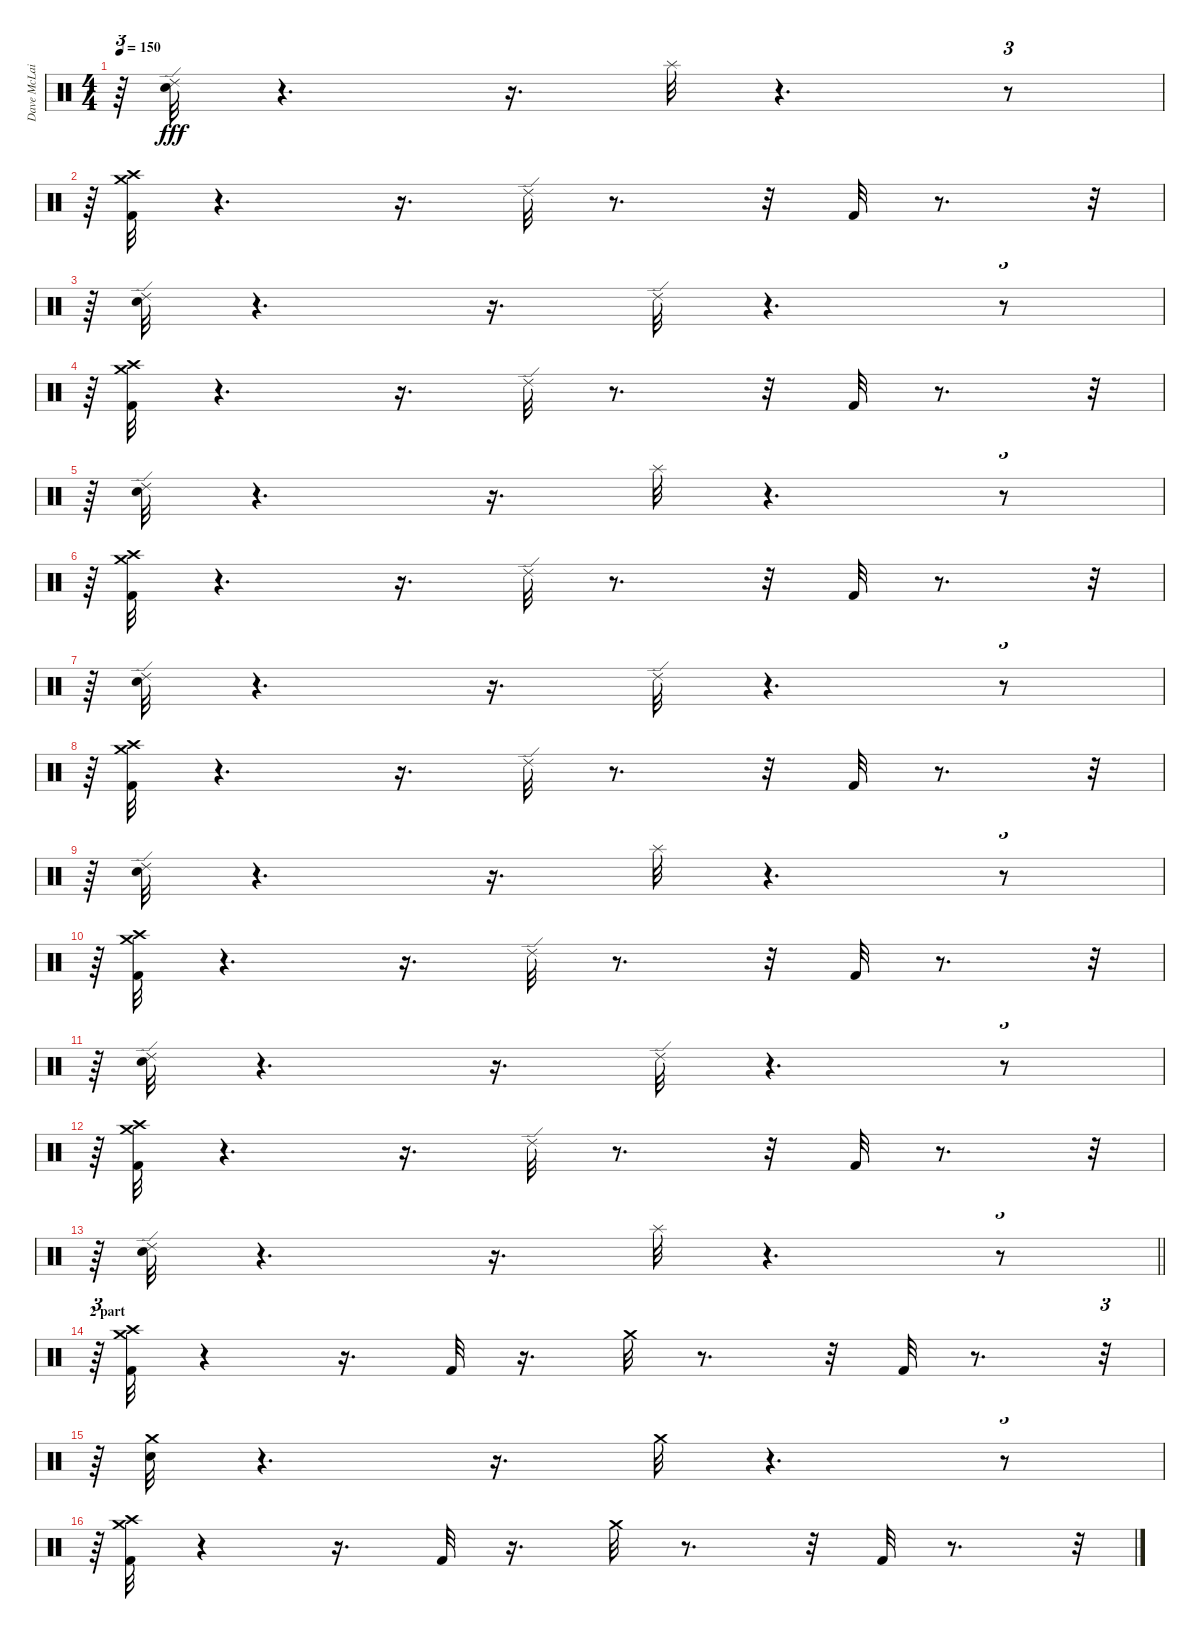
\track ("Dave McLain" "Dave McLai") {instrument percussion}
\staff {score}
\articulation defaults
\ts (4 4)
\tempo 150
\clef neutral
\ks c
r.64{tu (3 2) dy fff} ("Snare (hit) 2" "Ride (edge) 2").32 r.4{d} r.16{d} "Splash (hit)".32 r.4{d} r.8{tu (3 2)} |
r.64{tu (3 2)} ("Crash medium (hit)" "Crash high (hit)" "Kick (hit) 2").32 r.4{d} r.16{d} "Ride (edge) 2".32 r.8{d} r.32 "Kick (hit) 2".32 r.8{d} r.32{tu (3 2)} |
r.64{tu (3 2)} ("Ride (edge) 2" "Snare (hit) 2").32 r.4{d} r.16{d} "Ride (edge) 2".32 r.4{d} r.8{tu (3 2)} |
r.64{tu (3 2)} ("Crash high (hit)" "Crash medium (hit)" "Kick (hit) 2").32 r.4{d} r.16{d} "Ride (edge) 2".32 r.8{d} r.32 "Kick (hit) 2".32 r.8{d} r.32{tu (3 2)} |
r.64{tu (3 2)} ("Snare (hit) 2" "Ride (edge) 2").32 r.4{d} r.16{d} "Splash (hit)".32 r.4{d} r.8{tu (3 2)} |
r.64{tu (3 2)} ("Crash medium (hit)" "Crash high (hit)" "Kick (hit) 2").32 r.4{d} r.16{d} "Ride (edge) 2".32 r.8{d} r.32 "Kick (hit) 2".32 r.8{d} r.32{tu (3 2)} |
r.64{tu (3 2)} ("Ride (edge) 2" "Snare (hit) 2").32 r.4{d} r.16{d} "Ride (edge) 2".32 r.4{d} r.8{tu (3 2)} |
r.64{tu (3 2)} ("Crash high (hit)" "Crash medium (hit)" "Kick (hit) 2").32 r.4{d} r.16{d} "Ride (edge) 2".32 r.8{d} r.32 "Kick (hit) 2".32 r.8{d} r.32{tu (3 2)} |
r.64{tu (3 2)} ("Snare (hit) 2" "Ride (edge) 2").32 r.4{d} r.16{d} "Splash (hit)".32 r.4{d} r.8{tu (3 2)} |
r.64{tu (3 2)} ("Crash medium (hit)" "Crash high (hit)" "Kick (hit) 2").32 r.4{d} r.16{d} "Ride (edge) 2".32 r.8{d} r.32 "Kick (hit) 2".32 r.8{d} r.32{tu (3 2)} |
r.64{tu (3 2)} ("Ride (edge) 2" "Snare (hit) 2").32 r.4{d} r.16{d} "Ride (edge) 2".32 r.4{d} r.8{tu (3 2)} |
r.64{tu (3 2)} ("Crash high (hit)" "Crash medium (hit)" "Kick (hit) 2").32 r.4{d} r.16{d} "Ride (edge) 2".32 r.8{d} r.32 "Kick (hit) 2".32 r.8{d} r.32{tu (3 2)} |
\barLineRight lightlight
r.64{tu (3 2)} ("Snare (hit) 2" "Ride (edge) 2").32 r.4{d} r.16{d} "Splash (hit)".32 r.4{d} r.8{tu (3 2)} |
\section ("" "2 part")
r.64{tu (3 2)} ("Crash medium (hit)" "Crash high (hit)" "Kick (hit) 2").32 r.4 r.16{d} "Kick (hit) 2".32 r.16{d} "Crash medium (hit)".32 r.8{d} r.32 "Kick (hit) 2".32 r.8{d} r.32{tu (3 2)} |
r.64{tu (3 2)} ("Crash medium (hit)" "Snare (hit) 2").32 r.4{d} r.16{d} "Crash medium (hit)".32 r.4{d} r.8{tu (3 2)} |
r.64{tu (3 2)} ("Crash high (hit)" "Crash medium (hit)" "Kick (hit) 2").32 r.4 r.16{d} "Kick (hit) 2".32 r.16{d} "Crash medium (hit)".32 r.8{d} r.32 "Kick (hit) 2".32 r.8{d} r.32{tu (3 2)}
